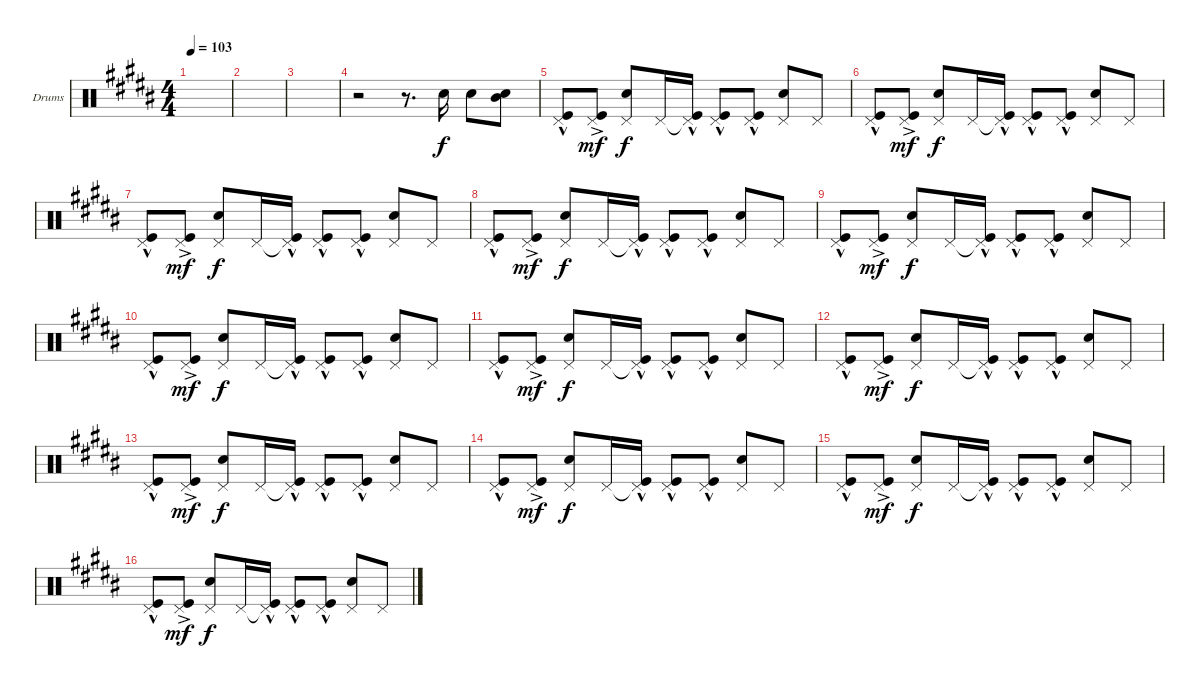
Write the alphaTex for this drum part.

\defaultSystemsLayout 4
\bracketExtendMode groupsimilarinstruments
\firstSystemTrackNameOrientation horizontal
\otherSystemsTrackNameOrientation horizontal
\track ("Drumkit" "Drums") {instrument percussion}
\staff {score}
\articulation defaults
\ts (4 4)
\tempo 103
\clef neutral
\scale
0.285333
\ks b
|
\scale
0.146667 |
\scale
0.16 |
\scale
0.418667 r.2 r.8{d} "Snare (hit) 2".16 "Snare (hit) 2".8 ("Snare (hit) 2" "Mid Tom (hit)").8 |
\scale
0.653439 ("Pedal Hi-Hat (hit)" "Kick (hit)"{hac}).8 ("Kick (hit)"{ac} "Pedal Hi-Hat (hit)").8{dy mf} ("Pedal Hi-Hat (hit)" "Snare (hit) 2").8{dy f} "Pedal Hi-Hat (hit)".16 ("Pedal Hi-Hat (hit)"{t} "Kick (hit)"{hac}).16 ("Kick (hit)"{hac} "Pedal Hi-Hat (hit)").8 ("Pedal Hi-Hat (hit)" "Kick (hit)"{hac}).8 ("Pedal Hi-Hat (hit)" "Snare (hit) 2").8 "Pedal Hi-Hat (hit)".8 |
\scale
0.333333 ("Pedal Hi-Hat (hit)" "Kick (hit)"{hac}).8 ("Kick (hit)"{ac} "Pedal Hi-Hat (hit)").8{dy mf} ("Pedal Hi-Hat (hit)" "Snare (hit) 2").8{dy f} "Pedal Hi-Hat (hit)".16 ("Pedal Hi-Hat (hit)"{t} "Kick (hit)"{hac}).16 ("Kick (hit)"{hac} "Pedal Hi-Hat (hit)").8 ("Pedal Hi-Hat (hit)" "Kick (hit)"{hac}).8 ("Pedal Hi-Hat (hit)" "Snare (hit) 2").8 "Pedal Hi-Hat (hit)".8 |
("Pedal Hi-Hat (hit)" "Kick (hit)"{hac}).8 ("Kick (hit)"{ac} "Pedal Hi-Hat (hit)").8{dy mf} ("Pedal Hi-Hat (hit)" "Snare (hit) 2").8{dy f} "Pedal Hi-Hat (hit)".16 ("Pedal Hi-Hat (hit)"{t} "Kick (hit)"{hac}).16 ("Kick (hit)"{hac} "Pedal Hi-Hat (hit)").8 ("Pedal Hi-Hat (hit)" "Kick (hit)"{hac}).8 ("Pedal Hi-Hat (hit)" "Snare (hit) 2").8 "Pedal Hi-Hat (hit)".8 |
("Pedal Hi-Hat (hit)" "Kick (hit)"{hac}).8 ("Kick (hit)"{ac} "Pedal Hi-Hat (hit)").8{dy mf} ("Pedal Hi-Hat (hit)" "Snare (hit) 2").8{dy f} "Pedal Hi-Hat (hit)".16 ("Pedal Hi-Hat (hit)"{t} "Kick (hit)"{hac}).16 ("Kick (hit)"{hac} "Pedal Hi-Hat (hit)").8 ("Pedal Hi-Hat (hit)" "Kick (hit)"{hac}).8 ("Pedal Hi-Hat (hit)" "Snare (hit) 2").8 "Pedal Hi-Hat (hit)".8 |
("Pedal Hi-Hat (hit)" "Kick (hit)"{hac}).8 ("Kick (hit)"{ac} "Pedal Hi-Hat (hit)").8{dy mf} ("Pedal Hi-Hat (hit)" "Snare (hit) 2").8{dy f} "Pedal Hi-Hat (hit)".16 ("Pedal Hi-Hat (hit)"{t} "Kick (hit)"{hac}).16 ("Kick (hit)"{hac} "Pedal Hi-Hat (hit)").8 ("Pedal Hi-Hat (hit)" "Kick (hit)"{hac}).8 ("Pedal Hi-Hat (hit)" "Snare (hit) 2").8 "Pedal Hi-Hat (hit)".8 |
("Pedal Hi-Hat (hit)" "Kick (hit)"{hac}).8 ("Kick (hit)"{ac} "Pedal Hi-Hat (hit)").8{dy mf} ("Pedal Hi-Hat (hit)" "Snare (hit) 2").8{dy f} "Pedal Hi-Hat (hit)".16 ("Pedal Hi-Hat (hit)"{t} "Kick (hit)"{hac}).16 ("Kick (hit)"{hac} "Pedal Hi-Hat (hit)").8 ("Pedal Hi-Hat (hit)" "Kick (hit)"{hac}).8 ("Pedal Hi-Hat (hit)" "Snare (hit) 2").8 "Pedal Hi-Hat (hit)".8 |
("Pedal Hi-Hat (hit)" "Kick (hit)"{hac}).8 ("Kick (hit)"{ac} "Pedal Hi-Hat (hit)").8{dy mf} ("Pedal Hi-Hat (hit)" "Snare (hit) 2").8{dy f} "Pedal Hi-Hat (hit)".16 ("Pedal Hi-Hat (hit)"{t} "Kick (hit)"{hac}).16 ("Kick (hit)"{hac} "Pedal Hi-Hat (hit)").8 ("Pedal Hi-Hat (hit)" "Kick (hit)"{hac}).8 ("Pedal Hi-Hat (hit)" "Snare (hit) 2").8 "Pedal Hi-Hat (hit)".8 |
("Pedal Hi-Hat (hit)" "Kick (hit)"{hac}).8 ("Kick (hit)"{ac} "Pedal Hi-Hat (hit)").8{dy mf} ("Pedal Hi-Hat (hit)" "Snare (hit) 2").8{dy f} "Pedal Hi-Hat (hit)".16 ("Pedal Hi-Hat (hit)"{t} "Kick (hit)"{hac}).16 ("Kick (hit)"{hac} "Pedal Hi-Hat (hit)").8 ("Pedal Hi-Hat (hit)" "Kick (hit)"{hac}).8 ("Pedal Hi-Hat (hit)" "Snare (hit) 2").8 "Pedal Hi-Hat (hit)".8 |
("Pedal Hi-Hat (hit)" "Kick (hit)"{hac}).8 ("Kick (hit)"{ac} "Pedal Hi-Hat (hit)").8{dy mf} ("Pedal Hi-Hat (hit)" "Snare (hit) 2").8{dy f} "Pedal Hi-Hat (hit)".16 ("Pedal Hi-Hat (hit)"{t} "Kick (hit)"{hac}).16 ("Kick (hit)"{hac} "Pedal Hi-Hat (hit)").8 ("Pedal Hi-Hat (hit)" "Kick (hit)"{hac}).8 ("Pedal Hi-Hat (hit)" "Snare (hit) 2").8 "Pedal Hi-Hat (hit)".8 |
("Pedal Hi-Hat (hit)" "Kick (hit)"{hac}).8 ("Kick (hit)"{ac} "Pedal Hi-Hat (hit)").8{dy mf} ("Pedal Hi-Hat (hit)" "Snare (hit) 2").8{dy f} "Pedal Hi-Hat (hit)".16 ("Pedal Hi-Hat (hit)"{t} "Kick (hit)"{hac}).16 ("Kick (hit)"{hac} "Pedal Hi-Hat (hit)").8 ("Pedal Hi-Hat (hit)" "Kick (hit)"{hac}).8 ("Pedal Hi-Hat (hit)" "Snare (hit) 2").8 "Pedal Hi-Hat (hit)".8 |
("Pedal Hi-Hat (hit)" "Kick (hit)"{hac}).8 ("Kick (hit)"{ac} "Pedal Hi-Hat (hit)").8{dy mf} ("Pedal Hi-Hat (hit)" "Snare (hit) 2").8{dy f} "Pedal Hi-Hat (hit)".16 ("Pedal Hi-Hat (hit)"{t} "Kick (hit)"{hac}).16 ("Kick (hit)"{hac} "Pedal Hi-Hat (hit)").8 ("Pedal Hi-Hat (hit)" "Kick (hit)"{hac}).8 ("Pedal Hi-Hat (hit)" "Snare (hit) 2").8 "Pedal Hi-Hat (hit)".8 |
("Pedal Hi-Hat (hit)" "Kick (hit)"{hac}).8 ("Kick (hit)"{ac} "Pedal Hi-Hat (hit)").8{dy mf} ("Pedal Hi-Hat (hit)" "Snare (hit) 2").8{dy f} "Pedal Hi-Hat (hit)".16 ("Pedal Hi-Hat (hit)"{t} "Kick (hit)"{hac}).16 ("Kick (hit)"{hac} "Pedal Hi-Hat (hit)").8 ("Pedal Hi-Hat (hit)" "Kick (hit)"{hac}).8 ("Pedal Hi-Hat (hit)" "Snare (hit) 2").8 "Pedal Hi-Hat (hit)".8
